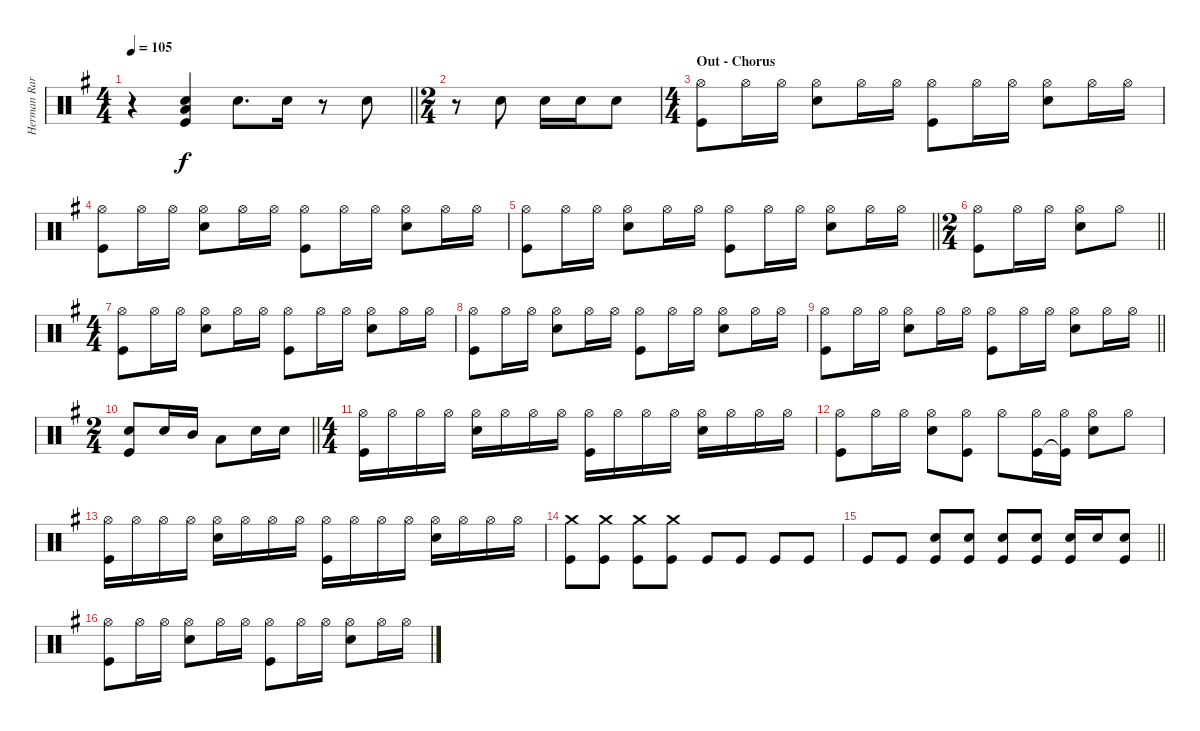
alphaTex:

\track ("Herman Rarebell" "Herman Rar") {instrument percussion}
\staff {score}
\articulation defaults
\ts (4 4)
\tempo 105
\clef neutral
\barLineRight lightlight
\ks g
r.4{dy f} ("Snare (hit) 2" "Low Floor Tom (hit)" "Kick (hit)").4 "Snare (hit) 2".8{d} "Snare (hit) 2".16 r.8 "Snare (hit) 2".8 |
\ts (2 4)
r.8 "Snare (hit) 2".8 "Snare (hit) 2".16 "Snare (hit) 2".16 "Snare (hit) 2".8 |
\ts (4 4)
\section ("" "Out - Chorus")
("Hi-Hat (open)" "Kick (hit)").8 "Hi-Hat (open)".16 "Hi-Hat (open)".16 ("Hi-Hat (open)" "Snare (hit) 2").8 "Hi-Hat (open)".16 "Hi-Hat (open)".16 ("Hi-Hat (open)" "Kick (hit)").8 "Hi-Hat (open)".16 "Hi-Hat (open)".16 ("Hi-Hat (open)" "Snare (hit) 2").8 "Hi-Hat (open)".16 "Hi-Hat (open)".16 |
("Hi-Hat (open)" "Kick (hit)").8 "Hi-Hat (open)".16 "Hi-Hat (open)".16 ("Hi-Hat (open)" "Snare (hit) 2").8 "Hi-Hat (open)".16 "Hi-Hat (open)".16 ("Hi-Hat (open)" "Kick (hit)").8 "Hi-Hat (open)".16 "Hi-Hat (open)".16 ("Hi-Hat (open)" "Snare (hit) 2").8 "Hi-Hat (open)".16 "Hi-Hat (open)".16 |
\barLineRight lightlight
("Hi-Hat (open)" "Kick (hit)").8 "Hi-Hat (open)".16 "Hi-Hat (open)".16 ("Hi-Hat (open)" "Snare (hit) 2").8 "Hi-Hat (open)".16 "Hi-Hat (open)".16 ("Hi-Hat (open)" "Kick (hit)").8 "Hi-Hat (open)".16 "Hi-Hat (open)".16 ("Hi-Hat (open)" "Snare (hit) 2").8 "Hi-Hat (open)".16 "Hi-Hat (open)".16 |
\ts (2 4)
\barLineRight lightlight
("Hi-Hat (open)" "Kick (hit)").8 "Hi-Hat (open)".16 "Hi-Hat (open)".16 ("Hi-Hat (open)" "Snare (hit) 2").8 "Hi-Hat (open)".8 |
\ts (4 4)
("Hi-Hat (open)" "Kick (hit)").8 "Hi-Hat (open)".16 "Hi-Hat (open)".16 ("Hi-Hat (open)" "Snare (hit) 2").8 "Hi-Hat (open)".16 "Hi-Hat (open)".16 ("Hi-Hat (open)" "Kick (hit)").8 "Hi-Hat (open)".16 "Hi-Hat (open)".16 ("Hi-Hat (open)" "Snare (hit) 2").8 "Hi-Hat (open)".16 "Hi-Hat (open)".16 |
("Hi-Hat (open)" "Kick (hit)").8 "Hi-Hat (open)".16 "Hi-Hat (open)".16 ("Hi-Hat (open)" "Snare (hit) 2").8 "Hi-Hat (open)".16 "Hi-Hat (open)".16 ("Hi-Hat (open)" "Kick (hit)").8 "Hi-Hat (open)".16 "Hi-Hat (open)".16 ("Hi-Hat (open)" "Snare (hit) 2").8 "Hi-Hat (open)".16 "Hi-Hat (open)".16 |
\barLineRight lightlight
("Hi-Hat (open)" "Kick (hit)").8 "Hi-Hat (open)".16 "Hi-Hat (open)".16 ("Hi-Hat (open)" "Snare (hit) 2").8 "Hi-Hat (open)".16 "Hi-Hat (open)".16 ("Hi-Hat (open)" "Kick (hit)").8 "Hi-Hat (open)".16 "Hi-Hat (open)".16 ("Hi-Hat (open)" "Snare (hit) 2").8 "Hi-Hat (open)".16 "Hi-Hat (open)".16 |
\ts (2 4)
\barLineRight lightlight
("Snare (hit) 2" "Kick (hit)").8 "Snare (hit) 2".16 "Mid Tom (hit)".16 "Low Tom (hit)".8 "Snare (hit) 2".16 "Snare (hit) 2".16 |
\ts (4 4)
("Hi-Hat (open)" "Kick (hit)").16 "Hi-Hat (open)".16 "Hi-Hat (open)".16 "Hi-Hat (open)".16 ("Hi-Hat (open)" "Snare (hit) 2").16 "Hi-Hat (open)".16 "Hi-Hat (open)".16 "Hi-Hat (open)".16 ("Hi-Hat (open)" "Kick (hit)").16 "Hi-Hat (open)".16 "Hi-Hat (open)".16 "Hi-Hat (open)".16 ("Hi-Hat (open)" "Snare (hit) 2").16 "Hi-Hat (open)".16 "Hi-Hat (open)".16 "Hi-Hat (open)".16 |
("Hi-Hat (open)" "Kick (hit)").8 "Hi-Hat (open)".16 "Hi-Hat (open)".16 ("Hi-Hat (open)" "Snare (hit) 2").8 ("Hi-Hat (open)" "Kick (hit)").8 "Hi-Hat (open)".8 ("Hi-Hat (open)" "Kick (hit)").16 ("Hi-Hat (open)" "Kick (hit)"{t}).16 ("Hi-Hat (open)" "Snare (hit) 2").8 "Hi-Hat (open)".8 |
("Hi-Hat (open)" "Kick (hit)").16 "Hi-Hat (open)".16 "Hi-Hat (open)".16 "Hi-Hat (open)".16 ("Hi-Hat (open)" "Snare (hit) 2").16 "Hi-Hat (open)".16 "Hi-Hat (open)".16 "Hi-Hat (open)".16 ("Hi-Hat (open)" "Kick (hit)").16 "Hi-Hat (open)".16 "Hi-Hat (open)".16 "Hi-Hat (open)".16 ("Hi-Hat (open)" "Snare (hit) 2").16 "Hi-Hat (open)".16 "Hi-Hat (open)".16 "Hi-Hat (open)".16 |
("Crash medium (hit)" "Kick (hit)").8 ("Crash medium (hit)" "Kick (hit)").8 ("Crash medium (hit)" "Kick (hit)").8 ("Crash medium (hit)" "Kick (hit)").8 "Kick (hit)".8 "Kick (hit)".8 "Kick (hit)".8 "Kick (hit)".8 |
\barLineRight lightlight "Kick (hit)".8 "Kick (hit)".8
("Snare (hit) 2" "Kick (hit)").8 ("Snare (hit) 2" "Kick (hit)").8 ("Snare (hit) 2" "Kick (hit)").8 ("Snare (hit) 2" "Kick (hit)").8 ("Snare (hit) 2" "Kick (hit)").16 "Snare (hit) 2".16 ("Snare (hit) 2" "Kick (hit)").8 |
("Hi-Hat (open)" "Kick (hit)").8 "Hi-Hat (open)".16 "Hi-Hat (open)".16 ("Hi-Hat (open)" "Snare (hit) 2").8 "Hi-Hat (open)".16 "Hi-Hat (open)".16 ("Hi-Hat (open)" "Kick (hit)").8 "Hi-Hat (open)".16 "Hi-Hat (open)".16 ("Hi-Hat (open)" "Snare (hit) 2").8 "Hi-Hat (open)".16 "Hi-Hat (open)".16
